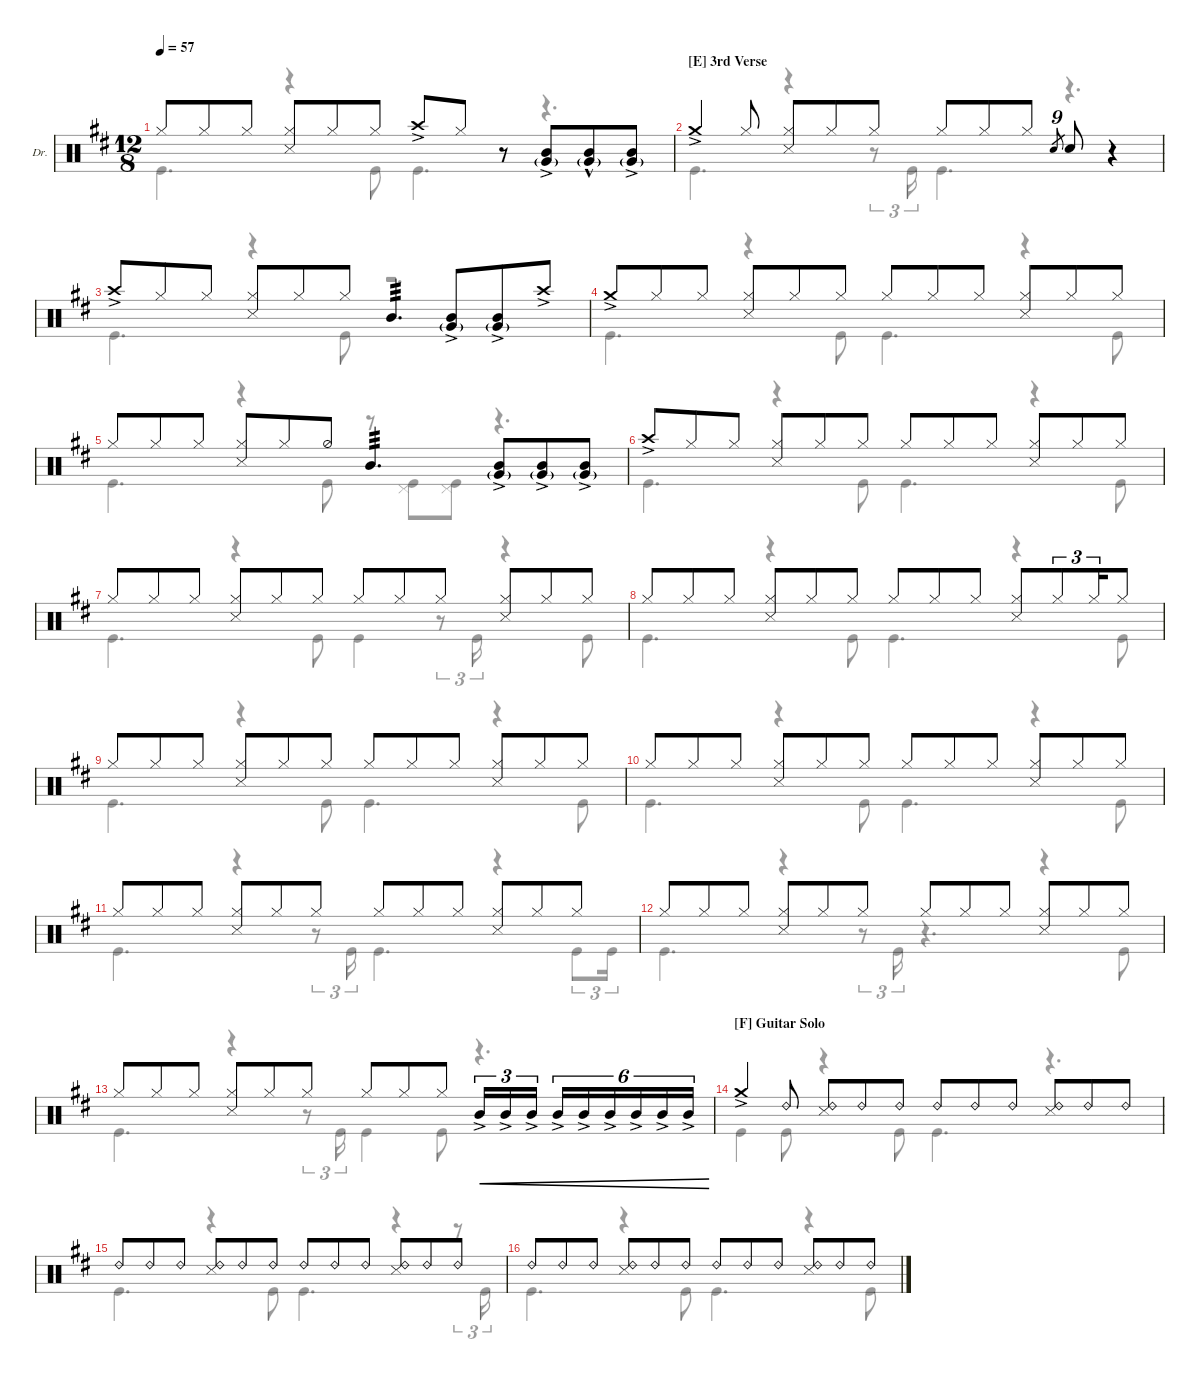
\defaultSystemsLayout 4
\hideDynamics
\bracketExtendMode groupsimilarinstruments
\firstSystemTrackNameOrientation horizontal
\otherSystemsTrackNameOrientation horizontal
\track ("Drums" "Dr.") {instrument percussion}
\staff {score}
\articulation defaults
\voice
\ts (12 8)
\tempo 57
\clef neutral
\ks d "Hi-Hat (closed)".8{dy p} "Hi-Hat (closed)".8 "Hi-Hat (closed)".8
("Hi-Hat (closed)" "Snare (side stick) 3").8 "Hi-Hat (closed)".8 "Hi-Hat (closed)".8 "Crash high (hit)"{ac}.8 "Hi-Hat (closed)".8 r.8 ("Mid Tom (hit)"{ac} "Very Low Tom (hit)"{g}).8 ("Mid Tom (hit)"{hac} "Very Low Tom (hit)"{g}).8 ("Mid Tom (hit)"{ac} "Very Low Tom (hit)"{g}).8 |
\section ("E" "3rd Verse")
\scale
0.515239 "Crash medium (hit)"{ac}.4 "Hi-Hat (closed)".8 ("Hi-Hat (closed)" "Snare (side stick) 3").8 "Hi-Hat (closed)".8 "Hi-Hat (closed)".8 "Hi-Hat (closed)".8 "Hi-Hat (closed)".8 "Hi-Hat (closed)".8 "Snare (hit) 2".8{tu (9 8) gr dy ppp} "Snare (hit) 2".8{dy p} r.4 |
\scale
0.484125 "Crash high (hit)"{ac}.8 "Hi-Hat (closed)".8 "Hi-Hat (closed)".8 ("Hi-Hat (closed)" "Snare (side stick) 3").8 "Hi-Hat (closed)".8 "Hi-Hat (closed)".8 "Mid Tom (hit)".4{d tp 3} ("Mid Tom (hit)"{ac} "Very Low Tom (hit)"{g}).8 ("Mid Tom (hit)"{ac} "Very Low Tom (hit)"{g}).8 "Crash high (hit)"{ac}.8 |
"Crash medium (hit)"{ac}.8 "Hi-Hat (closed)".8 "Hi-Hat (closed)".8 ("Hi-Hat (closed)" "Snare (side stick) 3").8 "Hi-Hat (closed)".8 "Hi-Hat (closed)".8 "Hi-Hat (closed)".8 "Hi-Hat (closed)".8 "Hi-Hat (closed)".8 ("Hi-Hat (closed)" "Snare (side stick) 3").8 "Hi-Hat (closed)".8 "Hi-Hat (closed)".8 |
"Hi-Hat (closed)".8 "Hi-Hat (closed)".8 "Hi-Hat (closed)".8 ("Hi-Hat (closed)" "Snare (side stick) 3").8 "Hi-Hat (closed)".8 "Hi-Hat (half)".8 "Mid Tom (hit)".4{d tp 3} ("Mid Tom (hit)"{ac} "Very Low Tom (hit)"{g}).8 ("Mid Tom (hit)"{ac} "Very Low Tom (hit)"{g}).8 ("Mid Tom (hit)"{ac} "Very Low Tom (hit)"{g}).8 |
\scale
0.515128 "Crash high (hit)"{ac}.8 "Hi-Hat (closed)".8 "Hi-Hat (closed)".8 ("Hi-Hat (closed)" "Snare (side stick) 3").8 "Hi-Hat (closed)".8 "Hi-Hat (closed)".8 "Hi-Hat (closed)".8 "Hi-Hat (closed)".8 "Hi-Hat (closed)".8 ("Hi-Hat (closed)" "Snare (side stick) 3").8 "Hi-Hat (closed)".8 "Hi-Hat (closed)".8 |
\scale
0.485108 "Hi-Hat (closed)".8 "Hi-Hat (closed)".8 "Hi-Hat (closed)".8 ("Hi-Hat (closed)" "Snare (side stick) 3").8 "Hi-Hat (closed)".8 "Hi-Hat (closed)".8 "Hi-Hat (closed)".8 "Hi-Hat (closed)".8 "Hi-Hat (closed)".8 ("Hi-Hat (closed)" "Snare (side stick) 3").8 "Hi-Hat (closed)".8 "Hi-Hat (closed)".8 |
\scale
0.511171 "Hi-Hat (closed)".8 "Hi-Hat (closed)".8 "Hi-Hat (closed)".8 ("Hi-Hat (closed)" "Snare (side stick) 3").8 "Hi-Hat (closed)".8 "Hi-Hat (closed)".8 "Hi-Hat (closed)".8 "Hi-Hat (closed)".8 "Hi-Hat (closed)".8 ("Hi-Hat (closed)" "Snare (side stick) 3").8{beam merge} "Hi-Hat (closed)".8{tu (3 2) beam merge} "Hi-Hat (closed)".16{tu (3 2) beam merge} "Hi-Hat (closed)".8 |
\scale
0.487873 "Hi-Hat (closed)".8 "Hi-Hat (closed)".8 "Hi-Hat (closed)".8 ("Hi-Hat (closed)" "Snare (side stick) 3").8 "Hi-Hat (closed)".8 "Hi-Hat (closed)".8 "Hi-Hat (closed)".8 "Hi-Hat (closed)".8 "Hi-Hat (closed)".8 ("Hi-Hat (closed)" "Snare (side stick) 3").8 "Hi-Hat (closed)".8 "Hi-Hat (closed)".8 |
"Hi-Hat (closed)".8 "Hi-Hat (closed)".8 "Hi-Hat (closed)".8 ("Hi-Hat (closed)" "Snare (side stick) 3").8 "Hi-Hat (closed)".8 "Hi-Hat (closed)".8 "Hi-Hat (closed)".8 "Hi-Hat (closed)".8 "Hi-Hat (closed)".8 ("Hi-Hat (closed)" "Snare (side stick) 3").8 "Hi-Hat (closed)".8 "Hi-Hat (closed)".8 |
"Hi-Hat (closed)".8 "Hi-Hat (closed)".8 "Hi-Hat (closed)".8 ("Hi-Hat (closed)" "Snare (side stick) 3").8 "Hi-Hat (closed)".8 "Hi-Hat (closed)".8 "Hi-Hat (closed)".8 "Hi-Hat (closed)".8 "Hi-Hat (closed)".8 ("Hi-Hat (closed)" "Snare (side stick) 3").8 "Hi-Hat (closed)".8 "Hi-Hat (closed)".8 |
"Hi-Hat (closed)".8 "Hi-Hat (closed)".8 "Hi-Hat (closed)".8 ("Hi-Hat (closed)" "Snare (side stick) 3").8 "Hi-Hat (closed)".8 "Hi-Hat (closed)".8 "Hi-Hat (closed)".8 "Hi-Hat (closed)".8 "Hi-Hat (closed)".8 ("Hi-Hat (closed)" "Snare (side stick) 3").8 "Hi-Hat (closed)".8 "Hi-Hat (closed)".8 |
"Hi-Hat (closed)".8 "Hi-Hat (closed)".8 "Hi-Hat (closed)".8 ("Hi-Hat (closed)" "Snare (side stick) 3").8 "Hi-Hat (closed)".8 "Hi-Hat (closed)".8 "Hi-Hat (closed)".8 "Hi-Hat (closed)".8 "Hi-Hat (closed)".8 "Mid Tom (hit)"{ac}.16{tu (3 2) cre} "Mid Tom (hit)"{ac}.16{tu (3 2) cre} "Mid Tom (hit)"{ac}.16{tu (3 2) cre} "Mid Tom (hit)"{ac}.16{tu (6 4) cre} "Mid Tom (hit)"{ac}.16{tu (6 4) cre} "Mid Tom (hit)"{ac}.16{tu (6 4) cre} "Mid Tom (hit)"{ac}.16{tu (6 4) cre} "Mid Tom (hit)"{ac}.16{tu (6 4) cre} "Mid Tom (hit)"{ac}.16{tu (6 4) cre} |
\section ("F" "Guitar Solo")
"Crash medium (hit)"{ac}.4 "Ride (bell) 2".8 ("Ride (bell) 2" "Snare (side stick) 3").8 "Ride (bell) 2".8 "Ride (bell) 2".8 "Ride (bell) 2".8 "Ride (bell) 2".8 "Ride (bell) 2".8 ("Ride (bell) 2" "Snare (side stick) 3").8 "Ride (bell) 2".8 "Ride (bell) 2".8 |
"Ride (bell) 2".8 "Ride (bell) 2".8 "Ride (bell) 2".8 ("Ride (bell) 2" "Snare (side stick) 3").8 "Ride (bell) 2".8 "Ride (bell) 2".8 "Ride (bell) 2".8 "Ride (bell) 2".8 "Ride (bell) 2".8 ("Ride (bell) 2" "Snare (side stick) 3").8 "Ride (bell) 2".8 "Ride (bell) 2".8 |
"Ride (bell) 2".8 "Ride (bell) 2".8 "Ride (bell) 2".8 ("Ride (bell) 2" "Snare (side stick) 3").8 "Ride (bell) 2".8 "Ride (bell) 2".8 "Ride (bell) 2".8 "Ride (bell) 2".8 "Ride (bell) 2".8 ("Ride (bell) 2" "Snare (side stick) 3").8 "Ride (bell) 2".8 "Ride (bell) 2".8
\voice
\clef neutral
\ottava regular
\simile none
\ks d "Kick (hit)".4{d dy p}
r.4 "Kick (hit)".8 "Kick (hit)".4{d} r.4{d} |
\scale
0.515239 "Kick (hit)".4{d} r.4 r.8{tu (3 2)} "Kick (hit)".16{tu (3 2)} "Kick (hit)".4{d} r.4{d} |
\scale
0.484125 "Kick (hit)".4{d} r.4 "Kick (hit)".8 r.2{d} |
"Kick (hit)".4{d} r.4 "Kick (hit)".8 "Kick (hit)".4{d} r.4 "Kick (hit)".8 |
"Kick (hit)".4{d} r.4 "Kick (hit)".8 r.8 ("Kick (hit)" "Pedal Hi-Hat (hit)").8 ("Kick (hit)" "Pedal Hi-Hat (hit)").8 r.4{d} |
\scale
0.515128 "Kick (hit)".4{d} r.4 "Kick (hit)".8 "Kick (hit)".4{d} r.4 "Kick (hit)".8 |
\scale
0.485108 "Kick (hit)".4{d} r.4 "Kick (hit)".8 "Kick (hit)".4 r.8{tu (3 2)} "Kick (hit)".16{tu (3 2)} r.4 "Kick (hit)".8 |
\scale
0.511171 "Kick (hit)".4{d} r.4 "Kick (hit)".8 "Kick (hit)".4{d} r.4 "Kick (hit)".8 |
\scale
0.487873 "Kick (hit)".4{d} r.4 "Kick (hit)".8 "Kick (hit)".4{d} r.4 "Kick (hit)".8 |
"Kick (hit)".4{d} r.4 "Kick (hit)".8 "Kick (hit)".4{d} r.4 "Kick (hit)".8 |
"Kick (hit)".4{d} r.4 r.8{tu (3 2)} "Kick (hit)".16{tu (3 2)} "Kick (hit)".4{d} r.4 "Kick (hit)".8{tu (3 2)} "Kick (hit)".16{tu (3 2)} |
"Kick (hit)".4{d} r.4 r.8{tu (3 2)} "Kick (hit)".16{tu (3 2)} r.4{d} r.4 "Kick (hit)".8 |
"Kick (hit)".4{d} r.4 r.8{tu (3 2)} "Kick (hit)".16{tu (3 2)} "Kick (hit)".4 "Kick (hit)".8 r.4{d} |
"Kick (hit)".4 "Kick (hit)".8{dy pp} r.4 "Kick (hit)".8 "Kick (hit)".4{d dy p} r.4{d} |
"Kick (hit)".4{d} r.4 "Kick (hit)".8{dy pp} "Kick (hit)".4{d dy p} r.4 r.8{tu (3 2)} "Kick (hit)".16{tu (3 2) dy pp} |
"Kick (hit)".4{d} r.4 "Kick (hit)".8 "Kick (hit)".4{d} r.4 "Kick (hit)".8
